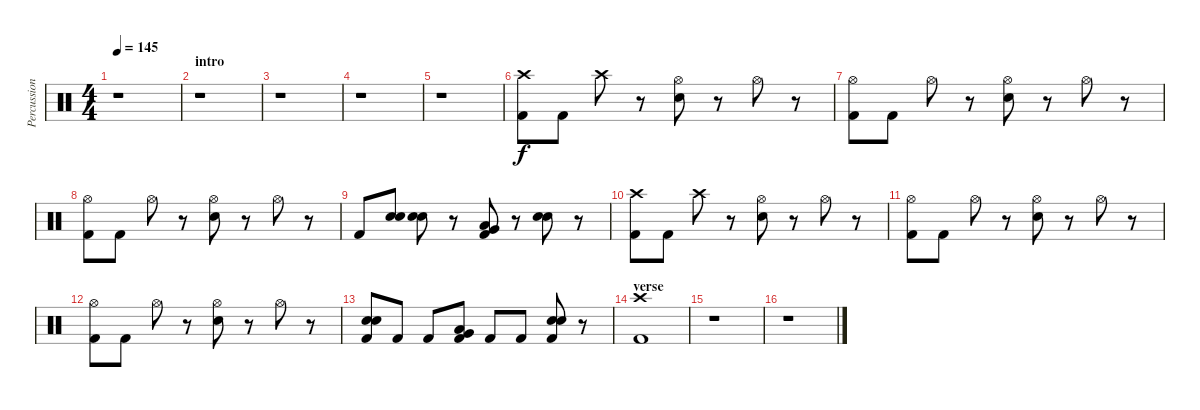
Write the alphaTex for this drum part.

\track ("Percussion" "Percussion") {instrument percussion}
\staff {score}
\articulation defaults
\ts (4 4)
\tempo 145
\clef neutral
\ks c
r.1{dy f} |
\section ("" "intro")
r.1 |
r.1 |
r.1 |
r.1 |
("Crash high (hit)" "Kick (hit) 2").8 "Kick (hit) 2".8 "Crash high (hit)".8 r.8 ("Hi-Hat (open)" "Electric Snare (hit)").8 r.8 "Hi-Hat (open)".8 r.8 |
("Hi-Hat (open)" "Kick (hit) 2").8 "Kick (hit) 2".8 "Hi-Hat (open)".8 r.8 ("Hi-Hat (open)" "Electric Snare (hit)").8 r.8 "Hi-Hat (open)".8 r.8 |
("Hi-Hat (open)" "Kick (hit) 2").8 "Kick (hit) 2".8 "Hi-Hat (open)".8 r.8 ("Hi-Hat (open)" "Electric Snare (hit)").8 r.8 "Hi-Hat (open)".8 r.8 |
"Kick (hit) 2".8 ("Electric Snare (hit)" "Electric Snare (hit)").8 ("Electric Snare (hit)" "Electric Snare (hit)").8 r.8 ("Low Tom (hit)" "Very Low Tom (hit)" "Kick (hit) 2").8 r.8 ("Electric Snare (hit)" "Electric Snare (hit)").8 r.8 |
("Crash high (hit)" "Kick (hit) 2").8 "Kick (hit) 2".8 "Crash high (hit)".8 r.8 ("Hi-Hat (open)" "Electric Snare (hit)").8 r.8 "Hi-Hat (open)".8 r.8 |
("Hi-Hat (open)" "Kick (hit) 2").8 "Kick (hit) 2".8 "Hi-Hat (open)".8 r.8 ("Hi-Hat (open)" "Electric Snare (hit)").8 r.8 "Hi-Hat (open)".8 r.8 |
("Hi-Hat (open)" "Kick (hit) 2").8 "Kick (hit) 2".8 "Hi-Hat (open)".8 r.8 ("Hi-Hat (open)" "Electric Snare (hit)").8 r.8 "Hi-Hat (open)".8 r.8 |
("Electric Snare (hit)" "Electric Snare (hit)" "Kick (hit) 2").8 "Kick (hit) 2".8 "Kick (hit) 2".8 ("Low Tom (hit)" "Very Low Tom (hit)" "Kick (hit) 2").8 "Kick (hit) 2".8 "Kick (hit) 2".8 ("Electric Snare (hit)" "Electric Snare (hit)" "Kick (hit) 2").8 r.8 |
\section ("" "verse")
("Crash high (hit)" "Kick (hit) 2").1 |
r.1 |
r.1
